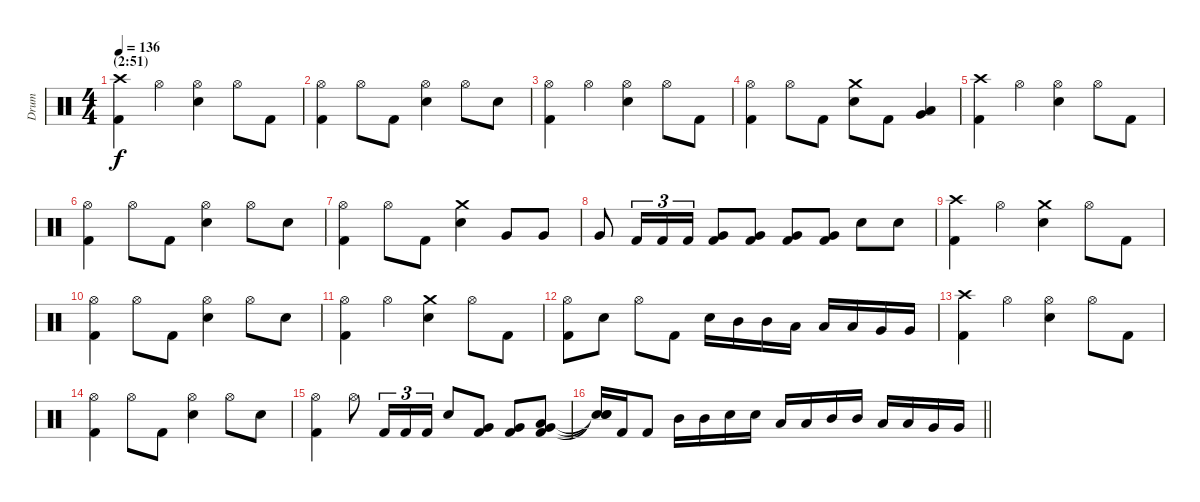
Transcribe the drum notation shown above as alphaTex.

\track ("Drum" "Drum") {instrument percussion}
\staff {score}
\articulation defaults
\ts (4 4)
\section ("" "(2:51)")
\tempo 136
\clef neutral
\ks c
("Crash high (hit)" "Kick (hit) 2").4{dy f} "Hi-Hat (open)".4 ("Hi-Hat (open)" "Snare (hit) 2").4 "Hi-Hat (open)".8 "Kick (hit) 2".8 |
("Hi-Hat (open)" "Kick (hit) 2").4 "Hi-Hat (open)".8 "Kick (hit) 2".8 ("Hi-Hat (open)" "Snare (hit) 2").4 "Hi-Hat (open)".8 "Snare (hit) 2".8 |
("Hi-Hat (open)" "Kick (hit) 2").4 "Hi-Hat (open)".4 ("Hi-Hat (open)" "Snare (hit) 2").4 "Hi-Hat (open)".8 "Kick (hit) 2".8 |
("Hi-Hat (open)" "Kick (hit) 2").4 "Hi-Hat (open)".8 "Kick (hit) 2".8 ("Crash medium (hit)" "Snare (hit) 2").8 "Kick (hit) 2".8 ("Low Floor Tom (hit)" "Very Low Tom (hit)").4 |
("Crash high (hit)" "Kick (hit) 2").4 "Hi-Hat (open)".4 ("Hi-Hat (open)" "Snare (hit) 2").4 "Hi-Hat (open)".8 "Kick (hit) 2".8 |
("Hi-Hat (open)" "Kick (hit) 2").4 "Hi-Hat (open)".8 "Kick (hit) 2".8 ("Hi-Hat (open)" "Snare (hit) 2").4 "Hi-Hat (open)".8 "Snare (hit) 2".8 |
("Hi-Hat (open)" "Kick (hit) 2").4 "Hi-Hat (open)".8 "Kick (hit) 2".8 ("Crash medium (hit)" "Snare (hit) 2").4 "Very Low Tom (hit)".8 "Very Low Tom (hit)".8 |
"Very Low Tom (hit)".8 "Kick (hit) 2".16{tu (3 2)} "Kick (hit) 2".16{tu (3 2)} "Kick (hit) 2".16{tu (3 2)} ("Very Low Tom (hit)" "Kick (hit) 2").8 ("Very Low Tom (hit)" "Kick (hit) 2").8 ("Very Low Tom (hit)" "Kick (hit) 2").8 ("Very Low Tom (hit)" "Kick (hit) 2").8 "Snare (hit) 2".8 "Snare (hit) 2".8 |
("Crash high (hit)" "Kick (hit) 2").4 "Hi-Hat (open)".4 ("Crash medium (hit)" "Snare (hit) 2").4 "Hi-Hat (open)".8 "Kick (hit) 2".8 |
("Hi-Hat (open)" "Kick (hit) 2").4 "Hi-Hat (open)".8 "Kick (hit) 2".8 ("Hi-Hat (open)" "Snare (hit) 2").4 "Hi-Hat (open)".8 "Snare (hit) 2".8 |
("Hi-Hat (open)" "Kick (hit) 2").4 "Hi-Hat (open)".4 ("Crash medium (hit)" "Snare (hit) 2").4 "Hi-Hat (open)".8 "Kick (hit) 2".8 |
("Hi-Hat (open)" "Kick (hit) 2").8 "Snare (hit) 2".8 "Hi-Hat (open)".8 "Kick (hit) 2".8 "Snare (hit) 2".16 "Mid Tom (hit)".16 "Mid Tom (hit)".16 "Low Tom (hit)".16 "Low Tom (hit)".16 "Low Tom (hit)".16 "Very Low Tom (hit)".16 "Very Low Tom (hit)".16 |
("Crash high (hit)" "Kick (hit) 2").4 "Hi-Hat (open)".4 ("Hi-Hat (open)" "Snare (hit) 2").4 "Hi-Hat (open)".8 "Kick (hit) 2".8 |
("Hi-Hat (open)" "Kick (hit) 2").4 "Hi-Hat (open)".8 "Kick (hit) 2".8 ("Hi-Hat (open)" "Snare (hit) 2").4 "Hi-Hat (open)".8 "Snare (hit) 2".8 |
("Hi-Hat (open)" "Kick (hit) 2").4 "Hi-Hat (open)".8 "Kick (hit) 2".16{tu (3 2)} "Kick (hit) 2".16{tu (3 2)} "Kick (hit) 2".16{tu (3 2)} "Snare (hit) 2".8 ("Very Low Tom (hit)" "Kick (hit) 2").8 ("Very Low Tom (hit)" "Kick (hit) 2").8 ("Low Floor Tom (hit)" "Very Low Tom (hit)" "Kick (hit) 2").8 |
\barLineRight lightlight
("Snare (hit)"{t} "Snare (hit)"{t} "Snare (hit)"{t}).16 "Kick (hit) 2".16 "Kick (hit) 2".8 "Mid Tom (hit)".16 "Mid Tom (hit)".16 "Snare (hit) 2".16 "Snare (hit) 2".16 "Low Tom (hit)".16 "Low Tom (hit)".16 "Mid Tom (hit)".16 "Mid Tom (hit)".16 "Low Tom (hit)".16 "Low Tom (hit)".16 "Very Low Tom (hit)".16 "Very Low Tom (hit)".16
